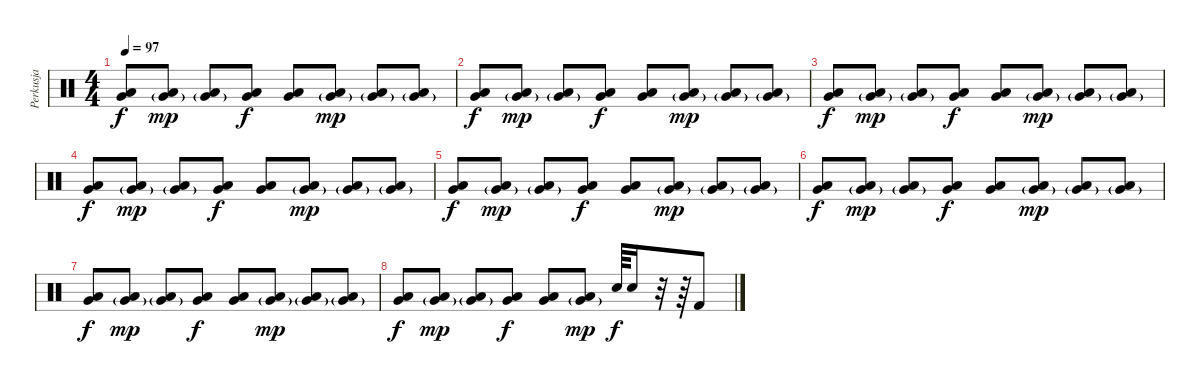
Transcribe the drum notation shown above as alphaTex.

\track ("Perkusja" "Perkusja") {instrument percussion}
\staff {score}
\articulation defaults
\ts (4 4)
\tempo 97
\clef neutral
\ks c
("Low Tom (hit)" "Very Low Tom (hit)").8{dy f} ("Low Tom (hit)" "Very Low Tom (hit)"{g}).8{dy mp} ("Low Tom (hit)" "Very Low Tom (hit)"{g}).8 ("Low Tom (hit)" "Very Low Tom (hit)").8{dy f} ("Low Tom (hit)" "Very Low Tom (hit)").8 ("Low Tom (hit)" "Very Low Tom (hit)"{g}).8{dy mp} ("Low Tom (hit)" "Very Low Tom (hit)"{g}).8 ("Low Tom (hit)" "Very Low Tom (hit)"{g}).8 |
("Low Tom (hit)" "Very Low Tom (hit)").8{dy f} ("Low Tom (hit)" "Very Low Tom (hit)"{g}).8{dy mp} ("Low Tom (hit)" "Very Low Tom (hit)"{g}).8 ("Low Tom (hit)" "Very Low Tom (hit)").8{dy f} ("Low Tom (hit)" "Very Low Tom (hit)").8 ("Low Tom (hit)" "Very Low Tom (hit)"{g}).8{dy mp} ("Low Tom (hit)" "Very Low Tom (hit)"{g}).8 ("Low Tom (hit)" "Very Low Tom (hit)"{g}).8 |
("Low Tom (hit)" "Very Low Tom (hit)").8{dy f} ("Low Tom (hit)" "Very Low Tom (hit)"{g}).8{dy mp} ("Low Tom (hit)" "Very Low Tom (hit)"{g}).8 ("Low Tom (hit)" "Very Low Tom (hit)").8{dy f} ("Low Tom (hit)" "Very Low Tom (hit)").8 ("Low Tom (hit)" "Very Low Tom (hit)"{g}).8{dy mp} ("Low Tom (hit)" "Very Low Tom (hit)"{g}).8 ("Low Tom (hit)" "Very Low Tom (hit)"{g}).8 |
("Low Tom (hit)" "Very Low Tom (hit)").8{dy f} ("Low Tom (hit)" "Very Low Tom (hit)"{g}).8{dy mp} ("Low Tom (hit)" "Very Low Tom (hit)"{g}).8 ("Low Tom (hit)" "Very Low Tom (hit)").8{dy f} ("Low Tom (hit)" "Very Low Tom (hit)").8 ("Low Tom (hit)" "Very Low Tom (hit)"{g}).8{dy mp} ("Low Tom (hit)" "Very Low Tom (hit)"{g}).8 ("Low Tom (hit)" "Very Low Tom (hit)"{g}).8 |
("Low Tom (hit)" "Very Low Tom (hit)").8{dy f} ("Low Tom (hit)" "Very Low Tom (hit)"{g}).8{dy mp} ("Low Tom (hit)" "Very Low Tom (hit)"{g}).8 ("Low Tom (hit)" "Very Low Tom (hit)").8{dy f} ("Low Tom (hit)" "Very Low Tom (hit)").8 ("Low Tom (hit)" "Very Low Tom (hit)"{g}).8{dy mp} ("Low Tom (hit)" "Very Low Tom (hit)"{g}).8 ("Low Tom (hit)" "Very Low Tom (hit)"{g}).8 |
("Low Tom (hit)" "Very Low Tom (hit)").8{dy f} ("Low Tom (hit)" "Very Low Tom (hit)"{g}).8{dy mp} ("Low Tom (hit)" "Very Low Tom (hit)"{g}).8 ("Low Tom (hit)" "Very Low Tom (hit)").8{dy f} ("Low Tom (hit)" "Very Low Tom (hit)").8 ("Low Tom (hit)" "Very Low Tom (hit)"{g}).8{dy mp} ("Low Tom (hit)" "Very Low Tom (hit)"{g}).8 ("Low Tom (hit)" "Very Low Tom (hit)"{g}).8 |
("Low Tom (hit)" "Very Low Tom (hit)").8{dy f} ("Low Tom (hit)" "Very Low Tom (hit)"{g}).8{dy mp} ("Low Tom (hit)" "Very Low Tom (hit)"{g}).8 ("Low Tom (hit)" "Very Low Tom (hit)").8{dy f} ("Low Tom (hit)" "Very Low Tom (hit)").8 ("Low Tom (hit)" "Very Low Tom (hit)"{g}).8{dy mp} ("Low Tom (hit)" "Very Low Tom (hit)"{g}).8 ("Low Tom (hit)" "Very Low Tom (hit)"{g}).8 |
("Low Tom (hit)" "Very Low Tom (hit)").8{dy f} ("Low Tom (hit)" "Very Low Tom (hit)"{g}).8{dy mp} ("Low Tom (hit)" "Very Low Tom (hit)"{g}).8 ("Low Tom (hit)" "Very Low Tom (hit)").8{dy f} ("Low Tom (hit)" "Very Low Tom (hit)").8 ("Low Tom (hit)" "Very Low Tom (hit)"{g}).8{dy mp} "Snare (hit) 2".64{dy f} "Snare (hit) 2".16 r.32 r.64 "Kick (hit) 2".8
